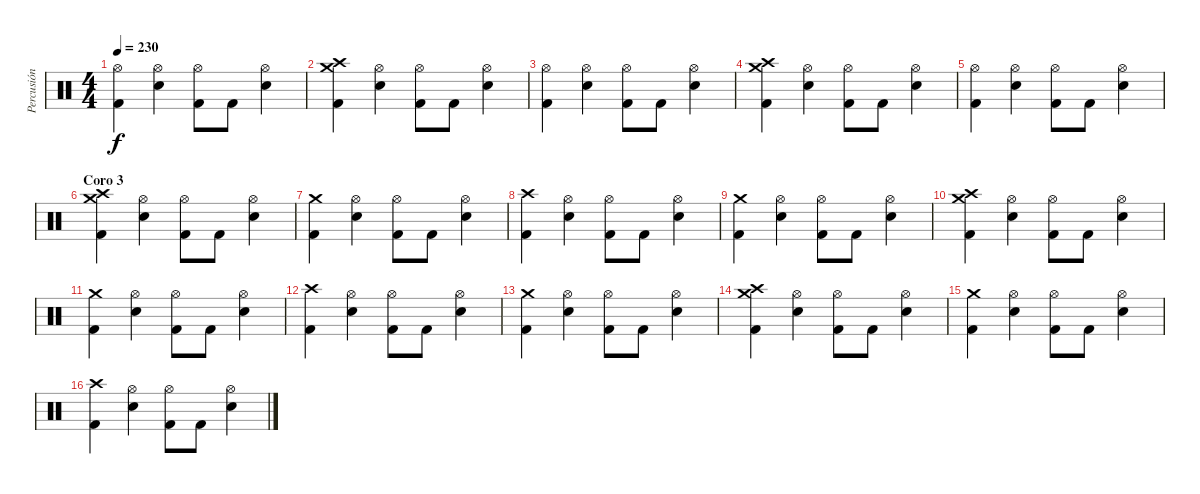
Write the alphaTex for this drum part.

\track ("Percusión" "Percusión") {instrument percussion}
\staff {score}
\articulation defaults
\ts (4 4)
\tempo 230
\clef neutral
\ks c
("Hi-Hat (open)" "Kick (hit) 2").4{dy f} ("Hi-Hat (open)" "Snare (hit) 2").4 ("Hi-Hat (open)" "Kick (hit) 2").8 "Kick (hit) 2".8 ("Hi-Hat (open)" "Snare (hit) 2").4 |
("Crash medium (hit)" "Crash high (hit)" "Kick (hit) 2").4 ("Hi-Hat (open)" "Snare (hit) 2").4 ("Hi-Hat (open)" "Kick (hit) 2").8 "Kick (hit) 2".8 ("Hi-Hat (open)" "Snare (hit) 2").4 |
("Hi-Hat (open)" "Kick (hit) 2").4 ("Hi-Hat (open)" "Snare (hit) 2").4 ("Hi-Hat (open)" "Kick (hit) 2").8 "Kick (hit) 2".8 ("Hi-Hat (open)" "Snare (hit) 2").4 |
("Crash medium (hit)" "Crash high (hit)" "Kick (hit) 2").4 ("Hi-Hat (open)" "Snare (hit) 2").4 ("Hi-Hat (open)" "Kick (hit) 2").8 "Kick (hit) 2".8 ("Hi-Hat (open)" "Snare (hit) 2").4 |
("Hi-Hat (open)" "Kick (hit) 2").4 ("Hi-Hat (open)" "Snare (hit) 2").4 ("Hi-Hat (open)" "Kick (hit) 2").8 "Kick (hit) 2".8 ("Hi-Hat (open)" "Snare (hit) 2").4 |
\section ("" "Coro 3")
("Crash medium (hit)" "Crash high (hit)" "Kick (hit) 2").4 ("Hi-Hat (open)" "Snare (hit) 2").4 ("Hi-Hat (open)" "Kick (hit) 2").8 "Kick (hit) 2".8 ("Hi-Hat (open)" "Snare (hit) 2").4 |
("Crash medium (hit)" "Kick (hit) 2").4 ("Hi-Hat (open)" "Snare (hit) 2").4 ("Hi-Hat (open)" "Kick (hit) 2").8 "Kick (hit) 2".8 ("Hi-Hat (open)" "Snare (hit) 2").4 |
("Crash high (hit)" "Kick (hit) 2").4 ("Hi-Hat (open)" "Snare (hit) 2").4 ("Hi-Hat (open)" "Kick (hit) 2").8 "Kick (hit) 2".8 ("Hi-Hat (open)" "Snare (hit) 2").4 |
("Crash medium (hit)" "Kick (hit) 2").4 ("Hi-Hat (open)" "Snare (hit) 2").4 ("Hi-Hat (open)" "Kick (hit) 2").8 "Kick (hit) 2".8 ("Hi-Hat (open)" "Snare (hit) 2").4 |
("Crash medium (hit)" "Crash high (hit)" "Kick (hit) 2").4 ("Hi-Hat (open)" "Snare (hit) 2").4 ("Hi-Hat (open)" "Kick (hit) 2").8 "Kick (hit) 2".8 ("Hi-Hat (open)" "Snare (hit) 2").4 |
("Crash medium (hit)" "Kick (hit) 2").4 ("Hi-Hat (open)" "Snare (hit) 2").4 ("Hi-Hat (open)" "Kick (hit) 2").8 "Kick (hit) 2".8 ("Hi-Hat (open)" "Snare (hit) 2").4 |
("Crash high (hit)" "Kick (hit) 2").4 ("Hi-Hat (open)" "Snare (hit) 2").4 ("Hi-Hat (open)" "Kick (hit) 2").8 "Kick (hit) 2".8 ("Hi-Hat (open)" "Snare (hit) 2").4 |
("Crash medium (hit)" "Kick (hit) 2").4 ("Hi-Hat (open)" "Snare (hit) 2").4 ("Hi-Hat (open)" "Kick (hit) 2").8 "Kick (hit) 2".8 ("Hi-Hat (open)" "Snare (hit) 2").4 |
("Crash medium (hit)" "Crash high (hit)" "Kick (hit) 2").4 ("Hi-Hat (open)" "Snare (hit) 2").4 ("Hi-Hat (open)" "Kick (hit) 2").8 "Kick (hit) 2".8 ("Hi-Hat (open)" "Snare (hit) 2").4 |
("Crash medium (hit)" "Kick (hit) 2").4 ("Hi-Hat (open)" "Snare (hit) 2").4 ("Hi-Hat (open)" "Kick (hit) 2").8 "Kick (hit) 2".8 ("Hi-Hat (open)" "Snare (hit) 2").4 |
("Crash high (hit)" "Kick (hit) 2").4 ("Hi-Hat (open)" "Snare (hit) 2").4 ("Hi-Hat (open)" "Kick (hit) 2").8 "Kick (hit) 2".8 ("Hi-Hat (open)" "Snare (hit) 2").4
